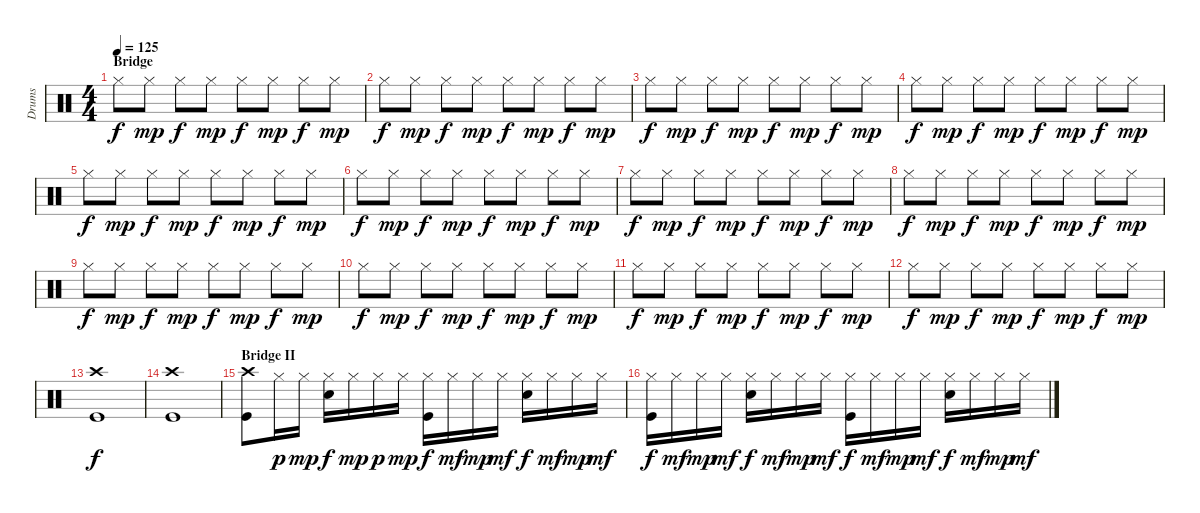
\track ("Drums" "Drums") {instrument percussion}
\staff {score}
\articulation defaults
\ts (4 4)
\section ("" "Bridge")
\tempo 125
\clef neutral
\ks c "Hi-Hat (closed)".8{dy f} "Hi-Hat (closed)".8{dy mp} "Hi-Hat (closed)".8{dy f} "Hi-Hat (closed)".8{dy mp} "Hi-Hat (closed)".8{dy f} "Hi-Hat (closed)".8{dy mp} "Hi-Hat (closed)".8{dy f} "Hi-Hat (closed)".8{dy mp}
|
"Hi-Hat (closed)".8{dy f} "Hi-Hat (closed)".8{dy mp} "Hi-Hat (closed)".8{dy f} "Hi-Hat (closed)".8{dy mp} "Hi-Hat (closed)".8{dy f} "Hi-Hat (closed)".8{dy mp} "Hi-Hat (closed)".8{dy f} "Hi-Hat (closed)".8{dy mp} |
"Hi-Hat (closed)".8{dy f} "Hi-Hat (closed)".8{dy mp} "Hi-Hat (closed)".8{dy f} "Hi-Hat (closed)".8{dy mp} "Hi-Hat (closed)".8{dy f} "Hi-Hat (closed)".8{dy mp} "Hi-Hat (closed)".8{dy f} "Hi-Hat (closed)".8{dy mp} |
"Hi-Hat (closed)".8{dy f} "Hi-Hat (closed)".8{dy mp} "Hi-Hat (closed)".8{dy f} "Hi-Hat (closed)".8{dy mp} "Hi-Hat (closed)".8{dy f} "Hi-Hat (closed)".8{dy mp} "Hi-Hat (closed)".8{dy f} "Hi-Hat (closed)".8{dy mp} |
"Hi-Hat (closed)".8{dy f} "Hi-Hat (closed)".8{dy mp} "Hi-Hat (closed)".8{dy f} "Hi-Hat (closed)".8{dy mp} "Hi-Hat (closed)".8{dy f} "Hi-Hat (closed)".8{dy mp} "Hi-Hat (closed)".8{dy f} "Hi-Hat (closed)".8{dy mp} |
"Hi-Hat (closed)".8{dy f} "Hi-Hat (closed)".8{dy mp} "Hi-Hat (closed)".8{dy f} "Hi-Hat (closed)".8{dy mp} "Hi-Hat (closed)".8{dy f} "Hi-Hat (closed)".8{dy mp} "Hi-Hat (closed)".8{dy f} "Hi-Hat (closed)".8{dy mp} |
"Hi-Hat (closed)".8{dy f} "Hi-Hat (closed)".8{dy mp} "Hi-Hat (closed)".8{dy f} "Hi-Hat (closed)".8{dy mp} "Hi-Hat (closed)".8{dy f} "Hi-Hat (closed)".8{dy mp} "Hi-Hat (closed)".8{dy f} "Hi-Hat (closed)".8{dy mp} |
"Hi-Hat (closed)".8{dy f} "Hi-Hat (closed)".8{dy mp} "Hi-Hat (closed)".8{dy f} "Hi-Hat (closed)".8{dy mp} "Hi-Hat (closed)".8{dy f} "Hi-Hat (closed)".8{dy mp} "Hi-Hat (closed)".8{dy f} "Hi-Hat (closed)".8{dy mp} |
"Hi-Hat (closed)".8{dy f} "Hi-Hat (closed)".8{dy mp} "Hi-Hat (closed)".8{dy f} "Hi-Hat (closed)".8{dy mp} "Hi-Hat (closed)".8{dy f} "Hi-Hat (closed)".8{dy mp} "Hi-Hat (closed)".8{dy f} "Hi-Hat (closed)".8{dy mp} |
"Hi-Hat (closed)".8{dy f} "Hi-Hat (closed)".8{dy mp} "Hi-Hat (closed)".8{dy f} "Hi-Hat (closed)".8{dy mp} "Hi-Hat (closed)".8{dy f} "Hi-Hat (closed)".8{dy mp} "Hi-Hat (closed)".8{dy f} "Hi-Hat (closed)".8{dy mp} |
"Hi-Hat (closed)".8{dy f} "Hi-Hat (closed)".8{dy mp} "Hi-Hat (closed)".8{dy f} "Hi-Hat (closed)".8{dy mp} "Hi-Hat (closed)".8{dy f} "Hi-Hat (closed)".8{dy mp} "Hi-Hat (closed)".8{dy f} "Hi-Hat (closed)".8{dy mp} |
"Hi-Hat (closed)".8{dy f} "Hi-Hat (closed)".8{dy mp} "Hi-Hat (closed)".8{dy f} "Hi-Hat (closed)".8{dy mp} "Hi-Hat (closed)".8{dy f} "Hi-Hat (closed)".8{dy mp} "Hi-Hat (closed)".8{dy f} "Hi-Hat (closed)".8{dy mp} |
("Crash high (hit)" "Kick (hit)").1{dy f} |
("Crash high (hit)" "Kick (hit)").1 |
\section ("" "Bridge II")
("Crash high (hit)" "Kick (hit)").8 "Hi-Hat (closed)".16{dy p} "Hi-Hat (closed)".16{dy mp} ("Hi-Hat (closed)" "Snare (hit) 2").16{dy f} "Hi-Hat (closed)".16{dy mp} "Hi-Hat (closed)".16{dy p} "Hi-Hat (closed)".16{dy mp} ("Hi-Hat (closed)" "Kick (hit)").16{dy f} "Hi-Hat (closed)".16{dy mf} "Hi-Hat (closed)".16{dy mp} "Hi-Hat (closed)".16{dy mf} ("Hi-Hat (closed)" "Snare (hit) 2").16{dy f} "Hi-Hat (closed)".16{dy mf} "Hi-Hat (closed)".16{dy mp} "Hi-Hat (closed)".16{dy mf} |
("Hi-Hat (closed)" "Kick (hit)").16{dy f} "Hi-Hat (closed)".16{dy mf} "Hi-Hat (closed)".16{dy mp} "Hi-Hat (closed)".16{dy mf} ("Hi-Hat (closed)" "Snare (hit) 2").16{dy f} "Hi-Hat (closed)".16{dy mf} "Hi-Hat (closed)".16{dy mp} "Hi-Hat (closed)".16{dy mf} ("Hi-Hat (closed)" "Kick (hit)").16{dy f} "Hi-Hat (closed)".16{dy mf} "Hi-Hat (closed)".16{dy mp} "Hi-Hat (closed)".16{dy mf} ("Hi-Hat (closed)" "Snare (hit) 2").16{dy f} "Hi-Hat (closed)".16{dy mf} "Hi-Hat (closed)".16{dy mp} "Hi-Hat (closed)".16{dy mf}
